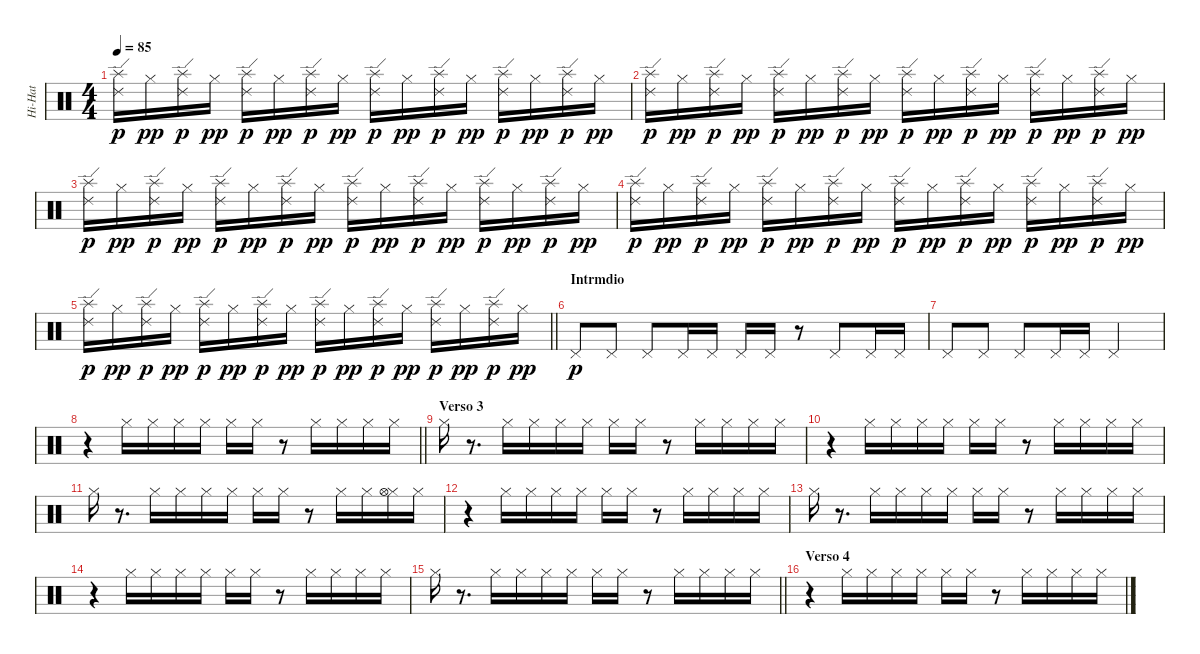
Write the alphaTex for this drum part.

\track ("Hi-Hat" "Hi-Hat") {instrument percussion}
\staff {score}
\articulation defaults
\ts (4 4)
\tempo 85
\clef neutral
\ks c
("Ride (edge) 2" "Splash (hit)").16{dy p} "Hi-Hat (closed)".16{dy pp} ("Ride (edge) 2" "Splash (hit)").16{dy p} "Hi-Hat (closed)".16{dy pp} ("Ride (edge) 2" "Splash (hit)").16{dy p} "Hi-Hat (closed)".16{dy pp} ("Ride (edge) 2" "Splash (hit)").16{dy p} "Hi-Hat (closed)".16{dy pp} ("Ride (edge) 2" "Splash (hit)").16{dy p} "Hi-Hat (closed)".16{dy pp} ("Ride (edge) 2" "Splash (hit)").16{dy p} "Hi-Hat (closed)".16{dy pp} ("Ride (edge) 2" "Splash (hit)").16{dy p} "Hi-Hat (closed)".16{dy pp} ("Ride (edge) 2" "Splash (hit)").16{dy p} "Hi-Hat (closed)".16{dy pp} |
("Ride (edge) 2" "Splash (hit)").16{dy p} "Hi-Hat (closed)".16{dy pp} ("Ride (edge) 2" "Splash (hit)").16{dy p} "Hi-Hat (closed)".16{dy pp} ("Ride (edge) 2" "Splash (hit)").16{dy p} "Hi-Hat (closed)".16{dy pp} ("Ride (edge) 2" "Splash (hit)").16{dy p} "Hi-Hat (closed)".16{dy pp} ("Ride (edge) 2" "Splash (hit)").16{dy p} "Hi-Hat (closed)".16{dy pp} ("Ride (edge) 2" "Splash (hit)").16{dy p} "Hi-Hat (closed)".16{dy pp} ("Ride (edge) 2" "Splash (hit)").16{dy p} "Hi-Hat (closed)".16{dy pp} ("Ride (edge) 2" "Splash (hit)").16{dy p} "Hi-Hat (closed)".16{dy pp} |
("Ride (edge) 2" "Splash (hit)").16{dy p} "Hi-Hat (closed)".16{dy pp} ("Ride (edge) 2" "Splash (hit)").16{dy p} "Hi-Hat (closed)".16{dy pp} ("Ride (edge) 2" "Splash (hit)").16{dy p} "Hi-Hat (closed)".16{dy pp} ("Ride (edge) 2" "Splash (hit)").16{dy p} "Hi-Hat (closed)".16{dy pp} ("Ride (edge) 2" "Splash (hit)").16{dy p} "Hi-Hat (closed)".16{dy pp} ("Ride (edge) 2" "Splash (hit)").16{dy p} "Hi-Hat (closed)".16{dy pp} ("Ride (edge) 2" "Splash (hit)").16{dy p} "Hi-Hat (closed)".16{dy pp} ("Ride (edge) 2" "Splash (hit)").16{dy p} "Hi-Hat (closed)".16{dy pp} |
("Ride (edge) 2" "Splash (hit)").16{dy p} "Hi-Hat (closed)".16{dy pp} ("Ride (edge) 2" "Splash (hit)").16{dy p} "Hi-Hat (closed)".16{dy pp} ("Ride (edge) 2" "Splash (hit)").16{dy p} "Hi-Hat (closed)".16{dy pp} ("Ride (edge) 2" "Splash (hit)").16{dy p} "Hi-Hat (closed)".16{dy pp} ("Ride (edge) 2" "Splash (hit)").16{dy p} "Hi-Hat (closed)".16{dy pp} ("Ride (edge) 2" "Splash (hit)").16{dy p} "Hi-Hat (closed)".16{dy pp} ("Ride (edge) 2" "Splash (hit)").16{dy p} "Hi-Hat (closed)".16{dy pp} ("Ride (edge) 2" "Splash (hit)").16{dy p} "Hi-Hat (closed)".16{dy pp} |
\barLineRight lightlight
("Ride (edge) 2" "Splash (hit)").16{dy p} "Hi-Hat (closed)".16{dy pp} ("Ride (edge) 2" "Splash (hit)").16{dy p} "Hi-Hat (closed)".16{dy pp} ("Ride (edge) 2" "Splash (hit)").16{dy p} "Hi-Hat (closed)".16{dy pp} ("Ride (edge) 2" "Splash (hit)").16{dy p} "Hi-Hat (closed)".16{dy pp} ("Ride (edge) 2" "Splash (hit)").16{dy p} "Hi-Hat (closed)".16{dy pp} ("Ride (edge) 2" "Splash (hit)").16{dy p} "Hi-Hat (closed)".16{dy pp} ("Ride (edge) 2" "Splash (hit)").16{dy p} "Hi-Hat (closed)".16{dy pp} ("Ride (edge) 2" "Splash (hit)").16{dy p} "Hi-Hat (closed)".16{dy pp} |
\section ("" "Intrmdio")
"Pedal Hi-Hat (hit)".8{dy p} "Pedal Hi-Hat (hit)".8 "Pedal Hi-Hat (hit)".8 "Pedal Hi-Hat (hit)".16 "Pedal Hi-Hat (hit)".16 "Pedal Hi-Hat (hit)".16 "Pedal Hi-Hat (hit)".16 r.8 "Pedal Hi-Hat (hit)".8 "Pedal Hi-Hat (hit)".16 "Pedal Hi-Hat (hit)".16 |
"Pedal Hi-Hat (hit)".8 "Pedal Hi-Hat (hit)".8 "Pedal Hi-Hat (hit)".8 "Pedal Hi-Hat (hit)".16 "Pedal Hi-Hat (hit)".16 "Pedal Hi-Hat (hit)".2 |
\barLineRight lightlight
r.4 "Hi-Hat (closed)".16 "Hi-Hat (closed)".16 "Hi-Hat (closed)".16 "Hi-Hat (closed)".16 "Hi-Hat (closed)".16 "Hi-Hat (closed)".16 r.8 "Hi-Hat (closed)".16 "Hi-Hat (closed)".16 "Hi-Hat (closed)".16 "Hi-Hat (closed)".16 |
\section ("" "Verso 3")
"Hi-Hat (closed)".16 r.8{d} "Hi-Hat (closed)".16 "Hi-Hat (closed)".16 "Hi-Hat (closed)".16 "Hi-Hat (closed)".16 "Hi-Hat (closed)".16 "Hi-Hat (closed)".16 r.8 "Hi-Hat (closed)".16 "Hi-Hat (closed)".16 "Hi-Hat (closed)".16 "Hi-Hat (closed)".16 |
r.4 "Hi-Hat (closed)".16 "Hi-Hat (closed)".16 "Hi-Hat (closed)".16 "Hi-Hat (closed)".16 "Hi-Hat (closed)".16 "Hi-Hat (closed)".16 r.8 "Hi-Hat (closed)".16 "Hi-Hat (closed)".16 "Hi-Hat (closed)".16 "Hi-Hat (closed)".16 |
"Hi-Hat (closed)".16 r.8{d} "Hi-Hat (closed)".16 "Hi-Hat (closed)".16 "Hi-Hat (closed)".16 "Hi-Hat (closed)".16 "Hi-Hat (closed)".16 "Hi-Hat (closed)".16 r.8 "Hi-Hat (closed)".16 "Hi-Hat (closed)".16 ("Hi-Hat (closed)" "Hi-Hat (open)").16 "Hi-Hat (closed)".16 |
r.4 "Hi-Hat (closed)".16 "Hi-Hat (closed)".16 "Hi-Hat (closed)".16 "Hi-Hat (closed)".16 "Hi-Hat (closed)".16 "Hi-Hat (closed)".16 r.8 "Hi-Hat (closed)".16 "Hi-Hat (closed)".16 "Hi-Hat (closed)".16 "Hi-Hat (closed)".16 |
"Hi-Hat (closed)".16 r.8{d} "Hi-Hat (closed)".16 "Hi-Hat (closed)".16 "Hi-Hat (closed)".16 "Hi-Hat (closed)".16 "Hi-Hat (closed)".16 "Hi-Hat (closed)".16 r.8 "Hi-Hat (closed)".16 "Hi-Hat (closed)".16 "Hi-Hat (closed)".16 "Hi-Hat (closed)".16 |
r.4 "Hi-Hat (closed)".16 "Hi-Hat (closed)".16 "Hi-Hat (closed)".16 "Hi-Hat (closed)".16 "Hi-Hat (closed)".16 "Hi-Hat (closed)".16 r.8 "Hi-Hat (closed)".16 "Hi-Hat (closed)".16 "Hi-Hat (closed)".16 "Hi-Hat (closed)".16 |
\barLineRight lightlight "Hi-Hat (closed)".16
r.8{d} "Hi-Hat (closed)".16 "Hi-Hat (closed)".16 "Hi-Hat (closed)".16 "Hi-Hat (closed)".16 "Hi-Hat (closed)".16 "Hi-Hat (closed)".16 r.8 "Hi-Hat (closed)".16 "Hi-Hat (closed)".16 "Hi-Hat (closed)".16 "Hi-Hat (closed)".16 |
\section ("" "Verso 4")
r.4 "Hi-Hat (closed)".16 "Hi-Hat (closed)".16 "Hi-Hat (closed)".16 "Hi-Hat (closed)".16 "Hi-Hat (closed)".16 "Hi-Hat (closed)".16 r.8 "Hi-Hat (closed)".16 "Hi-Hat (closed)".16 "Hi-Hat (closed)".16 "Hi-Hat (closed)".16
